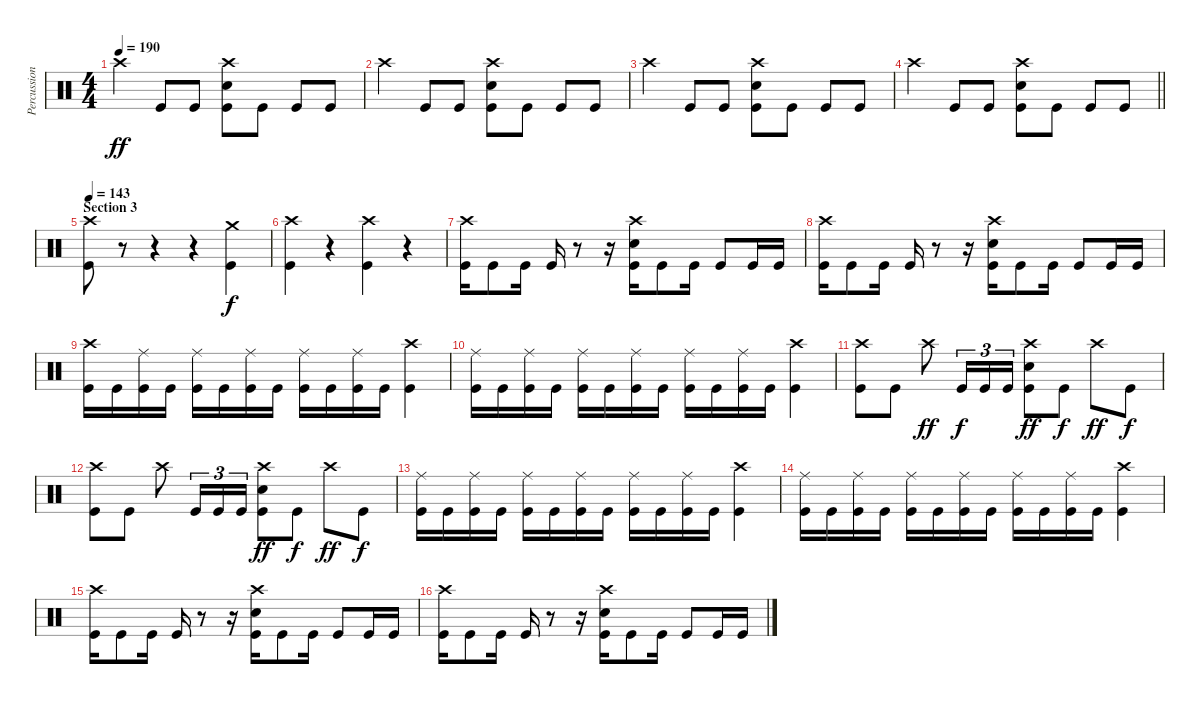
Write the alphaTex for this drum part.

\track ("Percussion" "Percussion") {instrument percussion}
\staff {score}
\articulation defaults
\ts (4 4)
\tempo 190
\clef neutral
\ks c "Crash high (hit)".4{dy ff} "Kick (hit)".8 "Kick (hit)".8
("Snare (hit) 2" "Crash high (hit)" "Kick (hit)").8 "Kick (hit)".8 "Kick (hit)".8 "Kick (hit)".8 |
"Crash high (hit)".4 "Kick (hit)".8 "Kick (hit)".8 ("Snare (hit) 2" "Crash high (hit)" "Kick (hit)").8 "Kick (hit)".8 "Kick (hit)".8 "Kick (hit)".8 |
"Crash high (hit)".4 "Kick (hit)".8 "Kick (hit)".8 ("Snare (hit) 2" "Crash high (hit)" "Kick (hit)").8 "Kick (hit)".8 "Kick (hit)".8 "Kick (hit)".8 |
\barLineRight lightlight "Crash high (hit)".4 "Kick (hit)".8 "Kick (hit)".8
("Snare (hit) 2" "Crash high (hit)" "Kick (hit)").8 "Kick (hit)".8 "Kick (hit)".8 "Kick (hit)".8 |
\section ("" "Section 3")
\tempo 143
("Crash high (hit)" "Kick (hit)").8 r.8 r.4 r.4 ("Crash medium (hit)" "Kick (hit)").4{dy f} |
("Crash high (hit)" "Kick (hit)").4 r.4 ("Crash high (hit)" "Kick (hit)").4 r.4 |
("Crash high (hit)" "Kick (hit)").16 "Kick (hit)".8 "Kick (hit)".16 "Kick (hit)".16 r.8 r.16 ("Snare (hit) 2" "Crash high (hit)" "Kick (hit)").16 "Kick (hit)".8 "Kick (hit)".16 "Kick (hit)".8 "Kick (hit)".16 "Kick (hit)".16 |
("Crash high (hit)" "Kick (hit)").16 "Kick (hit)".8 "Kick (hit)".16 "Kick (hit)".16 r.8 r.16 ("Snare (hit) 2" "Crash high (hit)" "Kick (hit)").16 "Kick (hit)".8 "Kick (hit)".16 "Kick (hit)".8 "Kick (hit)".16 "Kick (hit)".16 |
("Crash high (hit)" "Kick (hit)").16 "Kick (hit)".16 ("Ride (middle)" "Kick (hit)").16 "Kick (hit)".16 ("Ride (middle)" "Kick (hit)").16 "Kick (hit)".16 ("Ride (middle)" "Kick (hit)").16 "Kick (hit)".16 ("Ride (middle)" "Kick (hit)").16 "Kick (hit)".16 ("Ride (middle)" "Kick (hit)").16 "Kick (hit)".16 ("Crash high (hit)" "Kick (hit)").4 |
("Ride (middle)" "Kick (hit)").16 "Kick (hit)".16 ("Ride (middle)" "Kick (hit)").16 "Kick (hit)".16 ("Ride (middle)" "Kick (hit)").16 "Kick (hit)".16 ("Ride (middle)" "Kick (hit)").16 "Kick (hit)".16 ("Ride (middle)" "Kick (hit)").16 "Kick (hit)".16 ("Ride (middle)" "Kick (hit)").16 "Kick (hit)".16 ("Crash high (hit)" "Kick (hit)").4 |
("Crash high (hit)" "Kick (hit)").8 "Kick (hit)".8 "Crash high (hit)".8{dy ff} "Kick (hit)".16{tu (3 2) dy f} "Kick (hit)".16{tu (3 2)} "Kick (hit)".16{tu (3 2)} ("Crash high (hit)" "Snare (hit) 2" "Kick (hit)").8{dy ff} "Kick (hit)".8{dy f} "Crash high (hit)".8{dy ff} "Kick (hit)".8{dy f} |
("Crash high (hit)" "Kick (hit)").8 "Kick (hit)".8 "Crash high (hit)".8 "Kick (hit)".16{tu (3 2)} "Kick (hit)".16{tu (3 2)} "Kick (hit)".16{tu (3 2)} ("Crash high (hit)" "Snare (hit) 2" "Kick (hit)").8{dy ff} "Kick (hit)".8{dy f} "Crash high (hit)".8{dy ff} "Kick (hit)".8{dy f} |
("Ride (middle)" "Kick (hit)").16 "Kick (hit)".16 ("Ride (middle)" "Kick (hit)").16 "Kick (hit)".16 ("Ride (middle)" "Kick (hit)").16 "Kick (hit)".16 ("Ride (middle)" "Kick (hit)").16 "Kick (hit)".16 ("Ride (middle)" "Kick (hit)").16 "Kick (hit)".16 ("Ride (middle)" "Kick (hit)").16 "Kick (hit)".16 ("Crash high (hit)" "Kick (hit)").4 |
("Ride (middle)" "Kick (hit)").16 "Kick (hit)".16 ("Ride (middle)" "Kick (hit)").16 "Kick (hit)".16 ("Ride (middle)" "Kick (hit)").16 "Kick (hit)".16 ("Ride (middle)" "Kick (hit)").16 "Kick (hit)".16 ("Ride (middle)" "Kick (hit)").16 "Kick (hit)".16 ("Ride (middle)" "Kick (hit)").16 "Kick (hit)".16 ("Crash high (hit)" "Kick (hit)").4 |
("Crash high (hit)" "Kick (hit)").16 "Kick (hit)".8 "Kick (hit)".16 "Kick (hit)".16 r.8 r.16 ("Snare (hit) 2" "Crash high (hit)" "Kick (hit)").16 "Kick (hit)".8 "Kick (hit)".16 "Kick (hit)".8 "Kick (hit)".16 "Kick (hit)".16 |
("Crash high (hit)" "Kick (hit)").16 "Kick (hit)".8 "Kick (hit)".16 "Kick (hit)".16 r.8 r.16 ("Snare (hit) 2" "Crash high (hit)" "Kick (hit)").16 "Kick (hit)".8 "Kick (hit)".16 "Kick (hit)".8 "Kick (hit)".16 "Kick (hit)".16
